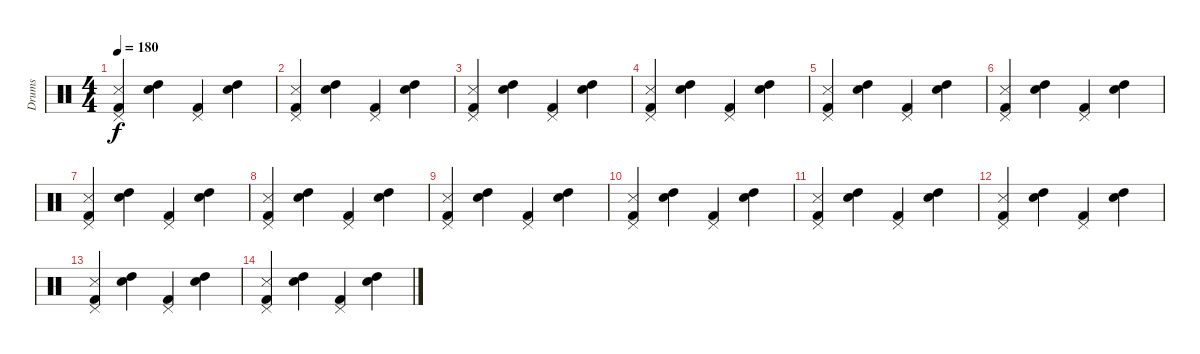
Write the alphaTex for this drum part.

\track ("Drums" "Drums") {instrument percussion}
\staff {score}
\articulation defaults
\ts (4 4)
\tempo 180
\clef neutral
\ks c
("Kick (hit) 2" "Pedal Hi-Hat (hit)" "Snare (side stick) 3").4{dy f} ("Snare (hit) 2" "High Tom (hit)").4 ("Kick (hit) 2" "Pedal Hi-Hat (hit)").4 ("Snare (hit) 2" "High Tom (hit)").4 |
("Kick (hit) 2" "Pedal Hi-Hat (hit)" "Snare (side stick) 3").4 ("Snare (hit) 2" "High Tom (hit)").4 ("Kick (hit) 2" "Pedal Hi-Hat (hit)").4 ("Snare (hit) 2" "High Tom (hit)").4 |
("Kick (hit) 2" "Pedal Hi-Hat (hit)" "Snare (side stick) 3").4 ("Snare (hit) 2" "High Tom (hit)").4 ("Kick (hit) 2" "Pedal Hi-Hat (hit)").4 ("Snare (hit) 2" "High Tom (hit)").4 |
("Kick (hit) 2" "Pedal Hi-Hat (hit)" "Snare (side stick) 3").4 ("Snare (hit) 2" "High Tom (hit)").4 ("Kick (hit) 2" "Pedal Hi-Hat (hit)").4 ("Snare (hit) 2" "High Tom (hit)").4 |
("Kick (hit) 2" "Pedal Hi-Hat (hit)" "Snare (side stick) 3").4 ("Snare (hit) 2" "High Tom (hit)").4 ("Kick (hit) 2" "Pedal Hi-Hat (hit)").4 ("Snare (hit) 2" "High Tom (hit)").4 |
("Kick (hit) 2" "Pedal Hi-Hat (hit)" "Snare (side stick) 3").4 ("Snare (hit) 2" "High Tom (hit)").4 ("Kick (hit) 2" "Pedal Hi-Hat (hit)").4 ("Snare (hit) 2" "High Tom (hit)").4 |
("Kick (hit) 2" "Pedal Hi-Hat (hit)" "Snare (side stick) 3").4 ("Snare (hit) 2" "High Tom (hit)").4 ("Kick (hit) 2" "Pedal Hi-Hat (hit)").4 ("Snare (hit) 2" "High Tom (hit)").4 |
("Kick (hit) 2" "Pedal Hi-Hat (hit)" "Snare (side stick) 3").4 ("Snare (hit) 2" "High Tom (hit)").4 ("Kick (hit) 2" "Pedal Hi-Hat (hit)").4 ("Snare (hit) 2" "High Tom (hit)").4 |
("Kick (hit) 2" "Pedal Hi-Hat (hit)" "Snare (side stick) 3").4 ("Snare (hit) 2" "High Tom (hit)").4 ("Kick (hit) 2" "Pedal Hi-Hat (hit)").4 ("Snare (hit) 2" "High Tom (hit)").4 |
("Kick (hit) 2" "Pedal Hi-Hat (hit)" "Snare (side stick) 3").4 ("Snare (hit) 2" "High Tom (hit)").4 ("Kick (hit) 2" "Pedal Hi-Hat (hit)").4 ("Snare (hit) 2" "High Tom (hit)").4 |
("Kick (hit) 2" "Pedal Hi-Hat (hit)" "Snare (side stick) 3").4 ("Snare (hit) 2" "High Tom (hit)").4 ("Kick (hit) 2" "Pedal Hi-Hat (hit)").4 ("Snare (hit) 2" "High Tom (hit)").4 |
("Kick (hit) 2" "Pedal Hi-Hat (hit)" "Snare (side stick) 3").4 ("Snare (hit) 2" "High Tom (hit)").4 ("Kick (hit) 2" "Pedal Hi-Hat (hit)").4 ("Snare (hit) 2" "High Tom (hit)").4 |
("Kick (hit) 2" "Pedal Hi-Hat (hit)" "Snare (side stick) 3").4 ("Snare (hit) 2" "High Tom (hit)").4 ("Kick (hit) 2" "Pedal Hi-Hat (hit)").4 ("Snare (hit) 2" "High Tom (hit)").4 |
("Kick (hit) 2" "Pedal Hi-Hat (hit)" "Snare (side stick) 3").4 ("Snare (hit) 2" "High Tom (hit)").4 ("Kick (hit) 2" "Pedal Hi-Hat (hit)").4 ("Snare (hit) 2" "High Tom (hit)").4
